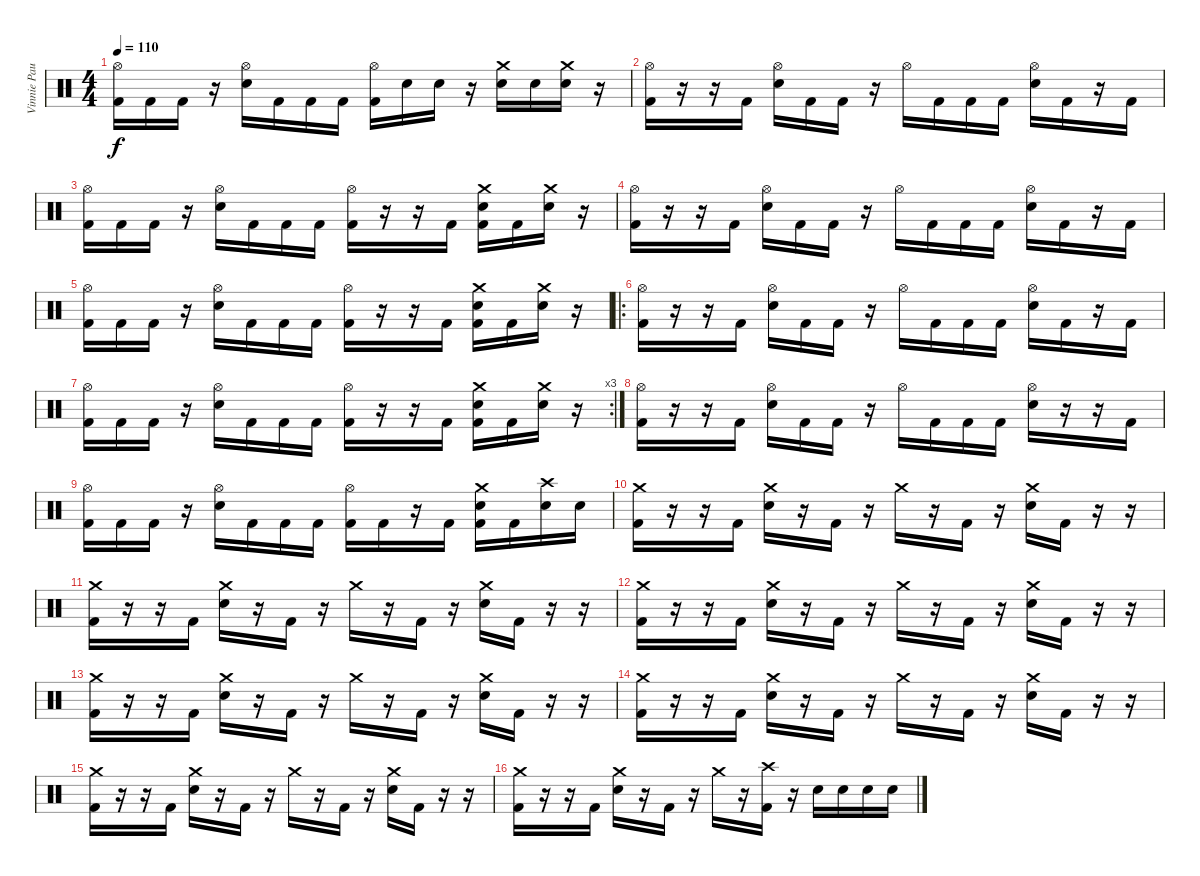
\track ("Vinnie Paul" "Vinnie Pau") {instrument percussion}
\staff {score}
\articulation defaults
\ts (4 4)
\tempo 110
\clef neutral
\ks c
("Hi-Hat (open)" "Kick (hit) 2").16{dy f} "Kick (hit) 2".16 "Kick (hit) 2".16 r.16 ("Hi-Hat (open)" "Electric Snare (hit)").16 "Kick (hit) 2".16 "Kick (hit) 2".16 "Kick (hit) 2".16 ("Hi-Hat (open)" "Kick (hit) 2").16 "Electric Snare (hit)".16 "Electric Snare (hit)".16 r.16 ("Crash medium (hit)" "Electric Snare (hit)").16 "Electric Snare (hit)".16 ("Crash medium (hit)" "Electric Snare (hit)").16 r.16 |
("Hi-Hat (open)" "Kick (hit) 2").16 r.16 r.16 "Kick (hit) 2".16 ("Hi-Hat (open)" "Electric Snare (hit)").16 "Kick (hit) 2".16 "Kick (hit) 2".16 r.16 "Hi-Hat (open)".16 "Kick (hit) 2".16 "Kick (hit) 2".16 "Kick (hit) 2".16 ("Hi-Hat (open)" "Electric Snare (hit)").16 "Kick (hit) 2".16 r.16 "Kick (hit) 2".16 |
("Hi-Hat (open)" "Kick (hit) 2").16 "Kick (hit) 2".16 "Kick (hit) 2".16 r.16 ("Hi-Hat (open)" "Electric Snare (hit)").16 "Kick (hit) 2".16 "Kick (hit) 2".16 "Kick (hit) 2".16 ("Hi-Hat (open)" "Kick (hit) 2").16 r.16 r.16 "Kick (hit) 2".16 ("Crash medium (hit)" "Electric Snare (hit)" "Kick (hit) 2").16 "Kick (hit) 2".16 ("Crash medium (hit)" "Electric Snare (hit)").16 r.16 |
("Hi-Hat (open)" "Kick (hit) 2").16 r.16 r.16 "Kick (hit) 2".16 ("Hi-Hat (open)" "Electric Snare (hit)").16 "Kick (hit) 2".16 "Kick (hit) 2".16 r.16 "Hi-Hat (open)".16 "Kick (hit) 2".16 "Kick (hit) 2".16 "Kick (hit) 2".16 ("Hi-Hat (open)" "Electric Snare (hit)").16 "Kick (hit) 2".16 r.16 "Kick (hit) 2".16 |
("Hi-Hat (open)" "Kick (hit) 2").16 "Kick (hit) 2".16 "Kick (hit) 2".16 r.16 ("Hi-Hat (open)" "Electric Snare (hit)").16 "Kick (hit) 2".16 "Kick (hit) 2".16 "Kick (hit) 2".16 ("Hi-Hat (open)" "Kick (hit) 2").16 r.16 r.16 "Kick (hit) 2".16 ("Crash medium (hit)" "Electric Snare (hit)" "Kick (hit) 2").16 "Kick (hit) 2".16 ("Crash medium (hit)" "Electric Snare (hit)").16 r.16 |
\ro
("Hi-Hat (open)" "Kick (hit) 2").16 r.16 r.16 "Kick (hit) 2".16 ("Hi-Hat (open)" "Electric Snare (hit)").16 "Kick (hit) 2".16 "Kick (hit) 2".16 r.16 "Hi-Hat (open)".16 "Kick (hit) 2".16 "Kick (hit) 2".16 "Kick (hit) 2".16 ("Hi-Hat (open)" "Electric Snare (hit)").16 "Kick (hit) 2".16 r.16 "Kick (hit) 2".16 |
\rc 3
("Hi-Hat (open)" "Kick (hit) 2").16 "Kick (hit) 2".16 "Kick (hit) 2".16 r.16 ("Hi-Hat (open)" "Electric Snare (hit)").16 "Kick (hit) 2".16 "Kick (hit) 2".16 "Kick (hit) 2".16 ("Hi-Hat (open)" "Kick (hit) 2").16 r.16 r.16 "Kick (hit) 2".16 ("Crash medium (hit)" "Electric Snare (hit)" "Kick (hit) 2").16 "Kick (hit) 2".16 ("Crash medium (hit)" "Electric Snare (hit)").16 r.16 |
("Hi-Hat (open)" "Kick (hit) 2").16 r.16 r.16 "Kick (hit) 2".16 ("Hi-Hat (open)" "Electric Snare (hit)").16 "Kick (hit) 2".16 "Kick (hit) 2".16 r.16 "Hi-Hat (open)".16 "Kick (hit) 2".16 "Kick (hit) 2".16 "Kick (hit) 2".16 ("Hi-Hat (open)" "Electric Snare (hit)").16 r.16 r.16 "Kick (hit) 2".16 |
("Hi-Hat (open)" "Kick (hit) 2").16 "Kick (hit) 2".16 "Kick (hit) 2".16 r.16 ("Hi-Hat (open)" "Electric Snare (hit)").16 "Kick (hit) 2".16 "Kick (hit) 2".16 "Kick (hit) 2".16 ("Hi-Hat (open)" "Kick (hit) 2").16 "Kick (hit) 2".16 r.16 "Kick (hit) 2".16 ("Crash medium (hit)" "Electric Snare (hit)" "Kick (hit) 2").16 "Kick (hit) 2".16 ("Crash high (hit)" "Electric Snare (hit)").16 "Electric Snare (hit)".16 |
("Crash medium (hit)" "Kick (hit) 2").16 r.16 r.16 "Kick (hit) 2".16 ("Crash medium (hit)" "Electric Snare (hit)").16 r.16 "Kick (hit) 2".16 r.16 "Crash medium (hit)".16 r.16 "Kick (hit) 2".16 r.16 ("Crash medium (hit)" "Electric Snare (hit)").16 "Kick (hit) 2".16 r.16 r.16 |
("Crash medium (hit)" "Kick (hit) 2").16 r.16 r.16 "Kick (hit) 2".16 ("Crash medium (hit)" "Electric Snare (hit)").16 r.16 "Kick (hit) 2".16 r.16 "Crash medium (hit)".16 r.16 "Kick (hit) 2".16 r.16 ("Crash medium (hit)" "Electric Snare (hit)").16 "Kick (hit) 2".16 r.16 r.16 |
("Crash medium (hit)" "Kick (hit) 2").16 r.16 r.16 "Kick (hit) 2".16 ("Crash medium (hit)" "Electric Snare (hit)").16 r.16 "Kick (hit) 2".16 r.16 "Crash medium (hit)".16 r.16 "Kick (hit) 2".16 r.16 ("Crash medium (hit)" "Electric Snare (hit)").16 "Kick (hit) 2".16 r.16 r.16 |
("Crash medium (hit)" "Kick (hit) 2").16 r.16 r.16 "Kick (hit) 2".16 ("Crash medium (hit)" "Electric Snare (hit)").16 r.16 "Kick (hit) 2".16 r.16 "Crash medium (hit)".16 r.16 "Kick (hit) 2".16 r.16 ("Crash medium (hit)" "Electric Snare (hit)").16 "Kick (hit) 2".16 r.16 r.16 |
("Crash medium (hit)" "Kick (hit) 2").16 r.16 r.16 "Kick (hit) 2".16 ("Crash medium (hit)" "Electric Snare (hit)").16 r.16 "Kick (hit) 2".16 r.16 "Crash medium (hit)".16 r.16 "Kick (hit) 2".16 r.16 ("Crash medium (hit)" "Electric Snare (hit)").16 "Kick (hit) 2".16 r.16 r.16 |
("Crash medium (hit)" "Kick (hit) 2").16 r.16 r.16 "Kick (hit) 2".16 ("Crash medium (hit)" "Electric Snare (hit)").16 r.16 "Kick (hit) 2".16 r.16 "Crash medium (hit)".16 r.16 "Kick (hit) 2".16 r.16 ("Crash medium (hit)" "Electric Snare (hit)").16 "Kick (hit) 2".16 r.16 r.16 |
("Crash medium (hit)" "Kick (hit) 2").16 r.16 r.16 "Kick (hit) 2".16 ("Crash medium (hit)" "Electric Snare (hit)").16 r.16 "Kick (hit) 2".16 r.16 "Crash medium (hit)".16 r.16 ("Crash high (hit)" "Kick (hit) 2").16 r.16 "Electric Snare (hit)".16 "Electric Snare (hit)".16 "Electric Snare (hit)".16 "Electric Snare (hit)".16
